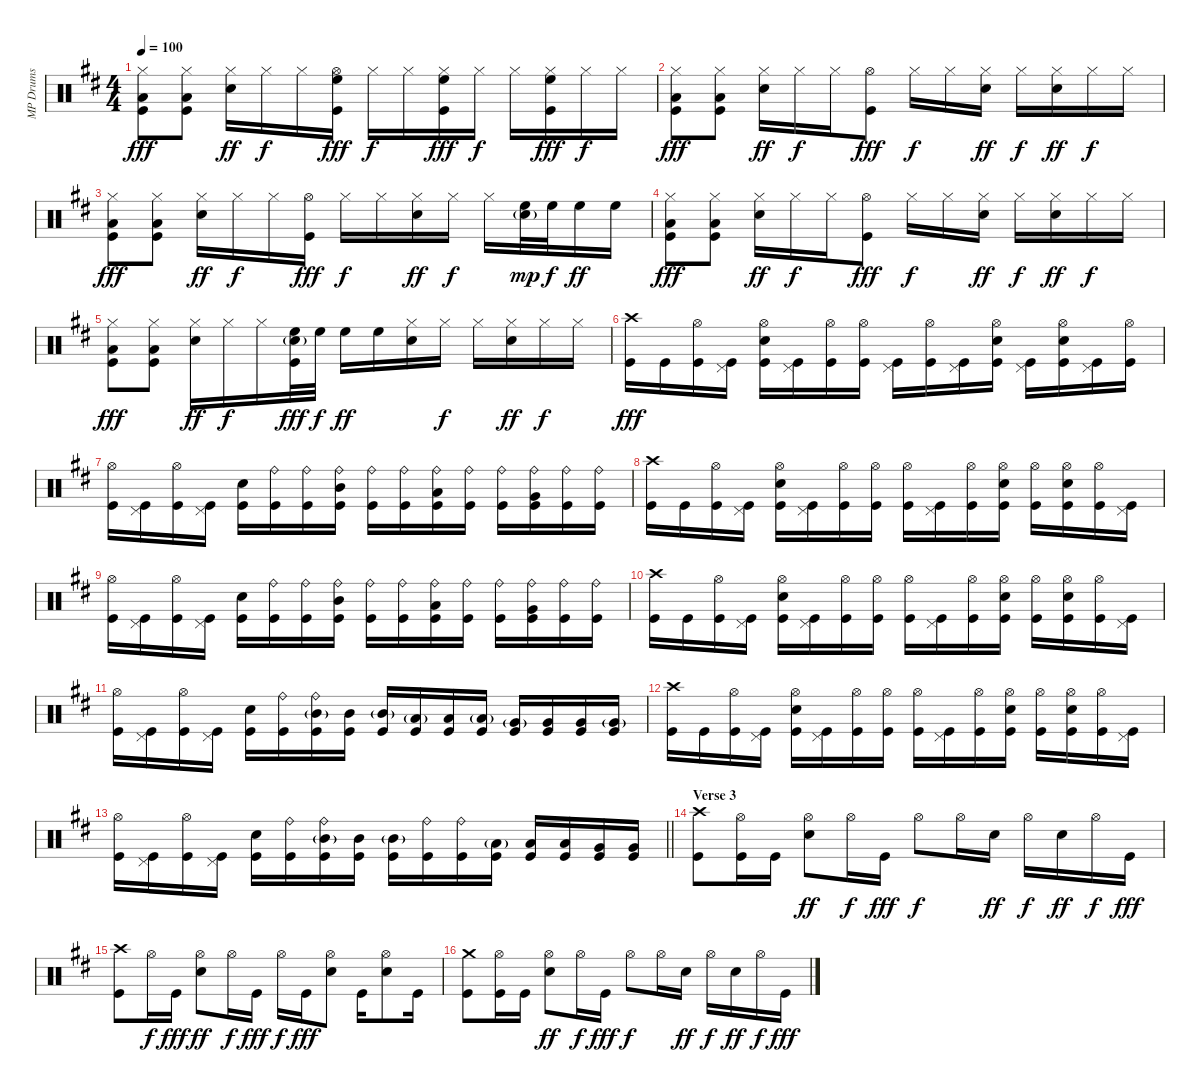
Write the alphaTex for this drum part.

\track ("MP Drums" "MP Drums") {instrument percussion}
\staff {score}
\articulation defaults
\ts (4 4)
\tempo 100
\clef neutral
\ks d
("Hi-Hat (closed)" "Low Tom (hit)" "Kick (hit)").8{dy fff} ("Hi-Hat (closed)" "Low Tom (hit)" "Kick (hit)").8 ("Hi-Hat (closed)" "Snare (hit) 2").16{dy ff} "Hi-Hat (closed)".16{dy f} "Hi-Hat (closed)".16 ("Hi-Hat (open)" "High Floor Tom (hit)" "Kick (hit)").16{dy fff} "Hi-Hat (closed)".16{dy f} "Hi-Hat (closed)".16 ("Hi-Hat (closed)" "High Floor Tom (hit)" "Kick (hit)").16{dy fff} "Hi-Hat (closed)".16{dy f} "Hi-Hat (closed)".16 ("Hi-Hat (closed)" "High Floor Tom (hit)" "Kick (hit)").16{dy fff} "Hi-Hat (closed)".16{dy f} "Hi-Hat (closed)".16 |
("Hi-Hat (closed)" "Low Tom (hit)" "Kick (hit)").8{dy fff} ("Hi-Hat (closed)" "Low Tom (hit)" "Kick (hit)").8 ("Hi-Hat (closed)" "Snare (hit) 2").16{dy ff} "Hi-Hat (closed)".16{dy f} "Hi-Hat (closed)".16 ("Hi-Hat (open)" "Kick (hit)").8{dy fff} "Hi-Hat (closed)".16{dy f} "Hi-Hat (closed)".16 ("Hi-Hat (closed)" "Snare (hit) 2").16{dy ff} "Hi-Hat (closed)".16{dy f} ("Hi-Hat (closed)" "Snare (hit) 2").16{dy ff} "Hi-Hat (closed)".16{dy f} "Hi-Hat (closed)".16 |
("Hi-Hat (closed)" "Low Tom (hit)" "Kick (hit)").8{dy fff} ("Hi-Hat (closed)" "Low Tom (hit)" "Kick (hit)").8 ("Hi-Hat (closed)" "Snare (hit) 2").16{dy ff} "Hi-Hat (closed)".16{dy f} "Hi-Hat (closed)".16 ("Hi-Hat (open)" "Kick (hit)").16{dy fff} "Hi-Hat (closed)".16{dy f} "Hi-Hat (closed)".16 ("Hi-Hat (closed)" "Snare (hit) 2").16{dy ff} "Hi-Hat (closed)".16{dy f} "Hi-Hat (closed)".16 ("High Floor Tom (hit)" "Snare (hit) 2"{g}).32{dy mp} "High Floor Tom (hit)".32{dy f} "High Floor Tom (hit)".16{dy ff} "High Floor Tom (hit)".16 |
("Hi-Hat (closed)" "Low Tom (hit)" "Kick (hit)").8{dy fff} ("Hi-Hat (closed)" "Low Tom (hit)" "Kick (hit)").8 ("Hi-Hat (closed)" "Snare (hit) 2").16{dy ff} "Hi-Hat (closed)".16{dy f} "Hi-Hat (closed)".16 ("Hi-Hat (open)" "Kick (hit)").8{dy fff} "Hi-Hat (closed)".16{dy f} "Hi-Hat (closed)".16 ("Hi-Hat (closed)" "Snare (hit) 2").16{dy ff} "Hi-Hat (closed)".16{dy f} ("Hi-Hat (closed)" "Snare (hit) 2").16{dy ff} "Hi-Hat (closed)".16{dy f} "Hi-Hat (closed)".16 |
("Hi-Hat (closed)" "Low Tom (hit)" "Kick (hit)").8{dy fff} ("Hi-Hat (closed)" "Low Tom (hit)" "Kick (hit)").8 ("Hi-Hat (closed)" "Snare (hit) 2").16{dy ff} "Hi-Hat (closed)".16{dy f} "Hi-Hat (closed)".16 ("High Floor Tom (hit)" "Snare (hit) 2"{g} "Kick (hit)").32{dy fff} "High Floor Tom (hit)".32{dy f} "High Floor Tom (hit)".16{dy ff} "High Floor Tom (hit)".16 ("Hi-Hat (closed)" "Snare (hit) 2").16 "Hi-Hat (closed)".16{dy f} "Hi-Hat (closed)".16 ("Hi-Hat (closed)" "Snare (hit) 2").16{dy ff} "Hi-Hat (closed)".16{dy f} "Hi-Hat (closed)".16 |
("Crash high (hit)" "Kick (hit)").16{dy fff} "Kick (hit)".16 ("Hi-Hat (open)" "Kick (hit)").16 ("Pedal Hi-Hat (hit)" "Kick (hit)").16 ("Hi-Hat (open)" "Snare (hit) 2" "Kick (hit)").16 ("Pedal Hi-Hat (hit)" "Kick (hit)").16 ("Hi-Hat (open)" "Kick (hit)").16 ("Hi-Hat (open)" "Kick (hit)").16 ("Pedal Hi-Hat (hit)" "Kick (hit)").16 ("Hi-Hat (open)" "Kick (hit)").16 ("Pedal Hi-Hat (hit)" "Kick (hit)").16 ("Hi-Hat (open)" "Snare (hit) 2" "Kick (hit)").16 ("Pedal Hi-Hat (hit)" "Kick (hit)").16 ("Hi-Hat (open)" "Snare (hit) 2" "Kick (hit)").16 ("Pedal Hi-Hat (hit)" "Kick (hit)").16 ("Hi-Hat (open)" "Kick (hit)").16 |
("Hi-Hat (open)" "Kick (hit)").16 ("Pedal Hi-Hat (hit)" "Kick (hit)").16 ("Hi-Hat (open)" "Kick (hit)").16 ("Pedal Hi-Hat (hit)" "Kick (hit)").16 ("Snare (hit) 2" "Kick (hit)").16 ("Ride (bell)" "Kick (hit)").16 ("Ride (bell)" "Kick (hit)").16 ("Ride (bell)" "Mid Tom (hit)" "Kick (hit)").16 ("Ride (bell)" "Kick (hit)").16 ("Ride (bell)" "Kick (hit)").16 ("Ride (bell)" "Low Tom (hit)" "Kick (hit)").16 ("Ride (bell)" "Kick (hit)").16 ("Ride (bell)" "Kick (hit)").16 ("Ride (bell)" "Very Low Tom (hit)" "Kick (hit)").16 ("Ride (bell)" "Kick (hit)").16 ("Ride (bell)" "Kick (hit)").16 |
("Crash high (hit)" "Kick (hit)").16 "Kick (hit)".16 ("Hi-Hat (open)" "Kick (hit)").16 ("Pedal Hi-Hat (hit)" "Kick (hit)").16 ("Hi-Hat (open)" "Snare (hit) 2" "Kick (hit)").16 ("Pedal Hi-Hat (hit)" "Kick (hit)").16 ("Hi-Hat (open)" "Kick (hit)").16 ("Hi-Hat (open)" "Kick (hit)").16 ("Hi-Hat (open)" "Kick (hit)").16 ("Pedal Hi-Hat (hit)" "Kick (hit)").16 ("Hi-Hat (open)" "Kick (hit)").16 ("Hi-Hat (open)" "Snare (hit) 2" "Kick (hit)").16 ("Hi-Hat (open)" "Kick (hit)").16 ("Hi-Hat (open)" "Snare (hit) 2" "Kick (hit)").16 ("Hi-Hat (open)" "Kick (hit)").16 ("Pedal Hi-Hat (hit)" "Kick (hit)").16 |
("Hi-Hat (open)" "Kick (hit)").16 ("Pedal Hi-Hat (hit)" "Kick (hit)").16 ("Hi-Hat (open)" "Kick (hit)").16 ("Pedal Hi-Hat (hit)" "Kick (hit)").16 ("Snare (hit) 2" "Kick (hit)").16 ("Ride (bell)" "Kick (hit)").16 ("Ride (bell)" "Kick (hit)").16 ("Ride (bell)" "Mid Tom (hit)" "Kick (hit)").16 ("Ride (bell)" "Kick (hit)").16 ("Ride (bell)" "Kick (hit)").16 ("Ride (bell)" "Low Tom (hit)" "Kick (hit)").16 ("Ride (bell)" "Kick (hit)").16 ("Ride (bell)" "Kick (hit)").16 ("Ride (bell)" "Very Low Tom (hit)" "Kick (hit)").16 ("Ride (bell)" "Kick (hit)").16 ("Ride (bell)" "Kick (hit)").16 |
("Crash high (hit)" "Kick (hit)").16 "Kick (hit)".16 ("Hi-Hat (open)" "Kick (hit)").16 ("Pedal Hi-Hat (hit)" "Kick (hit)").16 ("Hi-Hat (open)" "Snare (hit) 2" "Kick (hit)").16 ("Pedal Hi-Hat (hit)" "Kick (hit)").16 ("Hi-Hat (open)" "Kick (hit)").16 ("Hi-Hat (open)" "Kick (hit)").16 ("Hi-Hat (open)" "Kick (hit)").16 ("Pedal Hi-Hat (hit)" "Kick (hit)").16 ("Hi-Hat (open)" "Kick (hit)").16 ("Hi-Hat (open)" "Snare (hit) 2" "Kick (hit)").16 ("Hi-Hat (open)" "Kick (hit)").16 ("Hi-Hat (open)" "Snare (hit) 2" "Kick (hit)").16 ("Hi-Hat (open)" "Kick (hit)").16 ("Pedal Hi-Hat (hit)" "Kick (hit)").16 |
("Hi-Hat (open)" "Kick (hit)").16 ("Pedal Hi-Hat (hit)" "Kick (hit)").16 ("Hi-Hat (open)" "Kick (hit)").16 ("Pedal Hi-Hat (hit)" "Kick (hit)").16 ("Snare (hit) 2" "Kick (hit)").16 ("Ride (bell)" "Kick (hit)").16 ("Ride (bell)" "Mid Tom (hit)"{g} "Kick (hit)").16 ("Mid Tom (hit)" "Kick (hit)").16 ("Mid Tom (hit)"{g} "Kick (hit)").16 ("Low Tom (hit)"{g} "Kick (hit)").16 ("Low Tom (hit)" "Kick (hit)").16 ("Low Tom (hit)"{g} "Kick (hit)").16 ("Very Low Tom (hit)"{g} "Kick (hit)").16 ("Very Low Tom (hit)" "Kick (hit)").16 ("Very Low Tom (hit)" "Kick (hit)").16 ("Very Low Tom (hit)"{g} "Kick (hit)").16 |
("Crash high (hit)" "Kick (hit)").16 "Kick (hit)".16 ("Hi-Hat (open)" "Kick (hit)").16 ("Pedal Hi-Hat (hit)" "Kick (hit)").16 ("Hi-Hat (open)" "Snare (hit) 2" "Kick (hit)").16 ("Pedal Hi-Hat (hit)" "Kick (hit)").16 ("Hi-Hat (open)" "Kick (hit)").16 ("Hi-Hat (open)" "Kick (hit)").16 ("Hi-Hat (open)" "Kick (hit)").16 ("Pedal Hi-Hat (hit)" "Kick (hit)").16 ("Hi-Hat (open)" "Kick (hit)").16 ("Hi-Hat (open)" "Snare (hit) 2" "Kick (hit)").16 ("Hi-Hat (open)" "Kick (hit)").16 ("Hi-Hat (open)" "Snare (hit) 2" "Kick (hit)").16 ("Hi-Hat (open)" "Kick (hit)").16 ("Pedal Hi-Hat (hit)" "Kick (hit)").16 |
\barLineRight lightlight
("Hi-Hat (open)" "Kick (hit)").16 ("Pedal Hi-Hat (hit)" "Kick (hit)").16 ("Hi-Hat (open)" "Kick (hit)").16 ("Pedal Hi-Hat (hit)" "Kick (hit)").16 ("Snare (hit) 2" "Kick (hit)").16 ("Ride (bell)" "Kick (hit)").16 ("Ride (bell)" "Mid Tom (hit)"{g} "Kick (hit)").16 ("Mid Tom (hit)" "Kick (hit)").16 ("Mid Tom (hit)"{g} "Kick (hit)").16 ("Ride (bell)" "Kick (hit)").16 ("Ride (bell)" "Kick (hit)").16 ("Low Tom (hit)"{g} "Kick (hit)").16 ("Low Tom (hit)" "Kick (hit)").16 ("Low Tom (hit)" "Kick (hit)").16 ("Very Low Tom (hit)" "Kick (hit)").16 ("Very Low Tom (hit)" "Kick (hit)").16 |
\section ("" "Verse 3")
("Crash high (hit)" "Kick (hit)").8 ("Hi-Hat (open)" "Kick (hit)").16 "Kick (hit)".16 ("Hi-Hat (open)" "Snare (hit) 2").8{dy ff} "Hi-Hat (open)".16{dy f} "Kick (hit)".16{dy fff} "Hi-Hat (open)".8{dy f} "Hi-Hat (open)".16 "Snare (hit) 2".16{dy ff} "Hi-Hat (open)".16{dy f} "Snare (hit) 2".16{dy ff} "Hi-Hat (open)".16{dy f} "Kick (hit)".16{dy fff} |
("Crash high (hit)" "Kick (hit)").8 "Hi-Hat (open)".16{dy f} "Kick (hit)".16{dy fff} ("Hi-Hat (open)" "Snare (hit) 2").8{dy ff} "Hi-Hat (open)".16{dy f} "Kick (hit)".16{dy fff} "Hi-Hat (open)".16{dy f} "Kick (hit)".16{dy fff} ("Hi-Hat (open)" "Snare (hit) 2").8 "Kick (hit)".16 ("Hi-Hat (open)" "Snare (hit) 2").8 "Kick (hit)".16 |
("Crash medium (hit)" "Kick (hit)").8 ("Hi-Hat (open)" "Kick (hit)").16 "Kick (hit)".16 ("Hi-Hat (open)" "Snare (hit) 2").8{dy ff} "Hi-Hat (open)".16{dy f} "Kick (hit)".16{dy fff} "Hi-Hat (open)".8{dy f} "Hi-Hat (open)".16 "Snare (hit) 2".16{dy ff} "Hi-Hat (open)".16{dy f} "Snare (hit) 2".16{dy ff} "Hi-Hat (open)".16{dy f} "Kick (hit)".16{dy fff}
